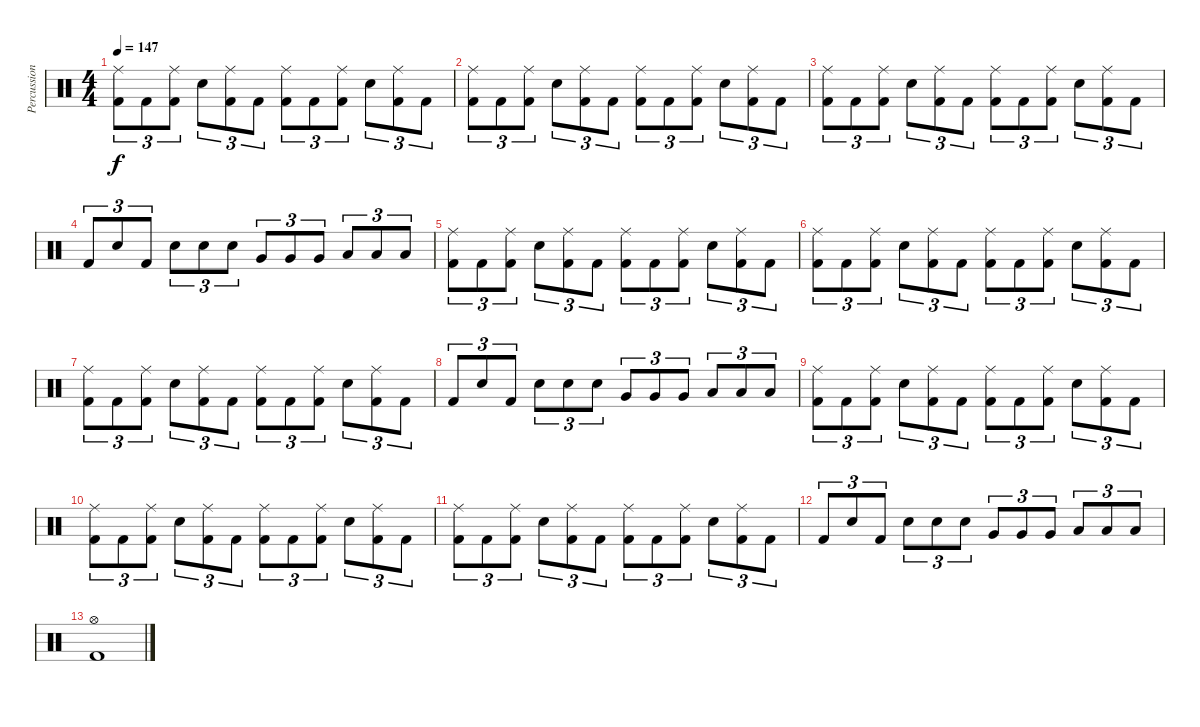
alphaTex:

\track ("Percussion" "Percussion") {instrument percussion}
\staff {score}
\articulation defaults
\ts (4 4)
\tempo 147
\clef neutral
\ks c
("Ride (middle)" "Kick (hit) 2").8{tu (3 2) dy f} "Kick (hit) 2".8{tu (3 2)} ("Ride (middle)" "Kick (hit) 2").8{tu (3 2)} "Electric Snare (hit)".8{tu (3 2)} ("Ride (middle)" "Kick (hit) 2").8{tu (3 2)} "Kick (hit) 2".8{tu (3 2)} ("Ride (middle)" "Kick (hit) 2").8{tu (3 2)} "Kick (hit) 2".8{tu (3 2)} ("Ride (middle)" "Kick (hit) 2").8{tu (3 2)} "Electric Snare (hit)".8{tu (3 2)} ("Ride (middle)" "Kick (hit) 2").8{tu (3 2)} "Kick (hit) 2".8{tu (3 2)} |
("Ride (middle)" "Kick (hit) 2").8{tu (3 2)} "Kick (hit) 2".8{tu (3 2)} ("Ride (middle)" "Kick (hit) 2").8{tu (3 2)} "Electric Snare (hit)".8{tu (3 2)} ("Ride (middle)" "Kick (hit) 2").8{tu (3 2)} "Kick (hit) 2".8{tu (3 2)} ("Ride (middle)" "Kick (hit) 2").8{tu (3 2)} "Kick (hit) 2".8{tu (3 2)} ("Ride (middle)" "Kick (hit) 2").8{tu (3 2)} "Electric Snare (hit)".8{tu (3 2)} ("Ride (middle)" "Kick (hit) 2").8{tu (3 2)} "Kick (hit) 2".8{tu (3 2)} |
("Ride (middle)" "Kick (hit) 2").8{tu (3 2)} "Kick (hit) 2".8{tu (3 2)} ("Ride (middle)" "Kick (hit) 2").8{tu (3 2)} "Electric Snare (hit)".8{tu (3 2)} ("Ride (middle)" "Kick (hit) 2").8{tu (3 2)} "Kick (hit) 2".8{tu (3 2)} ("Ride (middle)" "Kick (hit) 2").8{tu (3 2)} "Kick (hit) 2".8{tu (3 2)} ("Ride (middle)" "Kick (hit) 2").8{tu (3 2)} "Electric Snare (hit)".8{tu (3 2)} ("Ride (middle)" "Kick (hit) 2").8{tu (3 2)} "Kick (hit) 2".8{tu (3 2)} |
"Kick (hit) 2".8{tu (3 2)} "Electric Snare (hit)".8{tu (3 2)} "Kick (hit) 2".8{tu (3 2)} "Electric Snare (hit)".8{tu (3 2)} "Electric Snare (hit)".8{tu (3 2)} "Electric Snare (hit)".8{tu (3 2)} "Very Low Tom (hit)".8{tu (3 2)} "Very Low Tom (hit)".8{tu (3 2)} "Very Low Tom (hit)".8{tu (3 2)} "Low Floor Tom (hit)".8{tu (3 2)} "Low Floor Tom (hit)".8{tu (3 2)} "Low Floor Tom (hit)".8{tu (3 2)} |
("Ride (middle)" "Kick (hit) 2").8{tu (3 2)} "Kick (hit) 2".8{tu (3 2)} ("Ride (middle)" "Kick (hit) 2").8{tu (3 2)} "Electric Snare (hit)".8{tu (3 2)} ("Ride (middle)" "Kick (hit) 2").8{tu (3 2)} "Kick (hit) 2".8{tu (3 2)} ("Ride (middle)" "Kick (hit) 2").8{tu (3 2)} "Kick (hit) 2".8{tu (3 2)} ("Ride (middle)" "Kick (hit) 2").8{tu (3 2)} "Electric Snare (hit)".8{tu (3 2)} ("Ride (middle)" "Kick (hit) 2").8{tu (3 2)} "Kick (hit) 2".8{tu (3 2)} |
("Ride (middle)" "Kick (hit) 2").8{tu (3 2)} "Kick (hit) 2".8{tu (3 2)} ("Ride (middle)" "Kick (hit) 2").8{tu (3 2)} "Electric Snare (hit)".8{tu (3 2)} ("Ride (middle)" "Kick (hit) 2").8{tu (3 2)} "Kick (hit) 2".8{tu (3 2)} ("Ride (middle)" "Kick (hit) 2").8{tu (3 2)} "Kick (hit) 2".8{tu (3 2)} ("Ride (middle)" "Kick (hit) 2").8{tu (3 2)} "Electric Snare (hit)".8{tu (3 2)} ("Ride (middle)" "Kick (hit) 2").8{tu (3 2)} "Kick (hit) 2".8{tu (3 2)} |
("Ride (middle)" "Kick (hit) 2").8{tu (3 2)} "Kick (hit) 2".8{tu (3 2)} ("Ride (middle)" "Kick (hit) 2").8{tu (3 2)} "Electric Snare (hit)".8{tu (3 2)} ("Ride (middle)" "Kick (hit) 2").8{tu (3 2)} "Kick (hit) 2".8{tu (3 2)} ("Ride (middle)" "Kick (hit) 2").8{tu (3 2)} "Kick (hit) 2".8{tu (3 2)} ("Ride (middle)" "Kick (hit) 2").8{tu (3 2)} "Electric Snare (hit)".8{tu (3 2)} ("Ride (middle)" "Kick (hit) 2").8{tu (3 2)} "Kick (hit) 2".8{tu (3 2)} |
"Kick (hit) 2".8{tu (3 2)} "Electric Snare (hit)".8{tu (3 2)} "Kick (hit) 2".8{tu (3 2)} "Electric Snare (hit)".8{tu (3 2)} "Electric Snare (hit)".8{tu (3 2)} "Electric Snare (hit)".8{tu (3 2)} "Very Low Tom (hit)".8{tu (3 2)} "Very Low Tom (hit)".8{tu (3 2)} "Very Low Tom (hit)".8{tu (3 2)} "Low Floor Tom (hit)".8{tu (3 2)} "Low Floor Tom (hit)".8{tu (3 2)} "Low Floor Tom (hit)".8{tu (3 2)} |
("Ride (middle)" "Kick (hit) 2").8{tu (3 2)} "Kick (hit) 2".8{tu (3 2)} ("Ride (middle)" "Kick (hit) 2").8{tu (3 2)} "Electric Snare (hit)".8{tu (3 2)} ("Ride (middle)" "Kick (hit) 2").8{tu (3 2)} "Kick (hit) 2".8{tu (3 2)} ("Ride (middle)" "Kick (hit) 2").8{tu (3 2)} "Kick (hit) 2".8{tu (3 2)} ("Ride (middle)" "Kick (hit) 2").8{tu (3 2)} "Electric Snare (hit)".8{tu (3 2)} ("Ride (middle)" "Kick (hit) 2").8{tu (3 2)} "Kick (hit) 2".8{tu (3 2)} |
("Ride (middle)" "Kick (hit) 2").8{tu (3 2)} "Kick (hit) 2".8{tu (3 2)} ("Ride (middle)" "Kick (hit) 2").8{tu (3 2)} "Electric Snare (hit)".8{tu (3 2)} ("Ride (middle)" "Kick (hit) 2").8{tu (3 2)} "Kick (hit) 2".8{tu (3 2)} ("Ride (middle)" "Kick (hit) 2").8{tu (3 2)} "Kick (hit) 2".8{tu (3 2)} ("Ride (middle)" "Kick (hit) 2").8{tu (3 2)} "Electric Snare (hit)".8{tu (3 2)} ("Ride (middle)" "Kick (hit) 2").8{tu (3 2)} "Kick (hit) 2".8{tu (3 2)} |
("Ride (middle)" "Kick (hit) 2").8{tu (3 2)} "Kick (hit) 2".8{tu (3 2)} ("Ride (middle)" "Kick (hit) 2").8{tu (3 2)} "Electric Snare (hit)".8{tu (3 2)} ("Ride (middle)" "Kick (hit) 2").8{tu (3 2)} "Kick (hit) 2".8{tu (3 2)} ("Ride (middle)" "Kick (hit) 2").8{tu (3 2)} "Kick (hit) 2".8{tu (3 2)} ("Ride (middle)" "Kick (hit) 2").8{tu (3 2)} "Electric Snare (hit)".8{tu (3 2)} ("Ride (middle)" "Kick (hit) 2").8{tu (3 2)} "Kick (hit) 2".8{tu (3 2)} |
"Kick (hit) 2".8{tu (3 2)} "Electric Snare (hit)".8{tu (3 2)} "Kick (hit) 2".8{tu (3 2)} "Electric Snare (hit)".8{tu (3 2)} "Electric Snare (hit)".8{tu (3 2)} "Electric Snare (hit)".8{tu (3 2)} "Very Low Tom (hit)".8{tu (3 2)} "Very Low Tom (hit)".8{tu (3 2)} "Very Low Tom (hit)".8{tu (3 2)} "Low Floor Tom (hit)".8{tu (3 2)} "Low Floor Tom (hit)".8{tu (3 2)} "Low Floor Tom (hit)".8{tu (3 2)} |
("Hi-Hat (open)" "Kick (hit) 2").1
